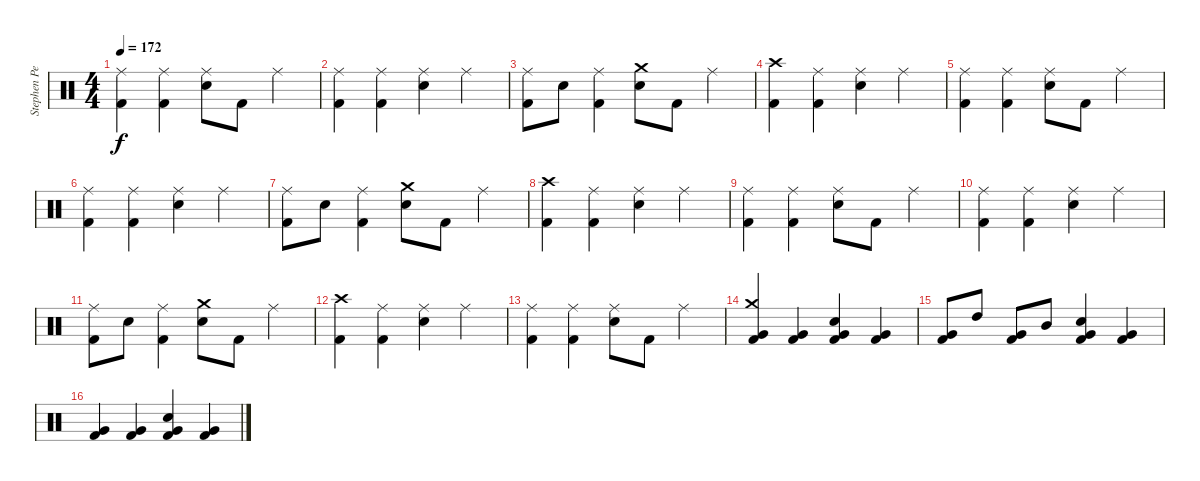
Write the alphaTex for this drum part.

\track ("Stephen Perkins" "Stephen Pe") {instrument percussion}
\staff {score}
\articulation defaults
\ts (4 4)
\tempo 172
\clef neutral
\ks c
("Ride (middle)" "Kick (hit) 2").4{dy f} ("Ride (middle)" "Kick (hit) 2").4 ("Ride (middle)" "Snare (hit) 2").8 "Kick (hit) 2".8 "Ride (middle)".4 |
("Ride (middle)" "Kick (hit) 2").4 ("Ride (middle)" "Kick (hit) 2").4 ("Ride (middle)" "Snare (hit) 2").4 "Ride (middle)".4 |
("Ride (middle)" "Kick (hit) 2").8 "Snare (hit) 2".8 ("Ride (middle)" "Kick (hit) 2").4 ("Crash medium (hit)" "Snare (hit) 2").8 "Kick (hit) 2".8 "Ride (middle)".4 |
("Crash high (hit)" "Kick (hit) 2").4 ("Ride (middle)" "Kick (hit) 2").4 ("Ride (middle)" "Snare (hit) 2").4 "Ride (middle)".4 |
("Ride (middle)" "Kick (hit) 2").4 ("Ride (middle)" "Kick (hit) 2").4 ("Ride (middle)" "Snare (hit) 2").8 "Kick (hit) 2".8 "Ride (middle)".4 |
("Ride (middle)" "Kick (hit) 2").4 ("Ride (middle)" "Kick (hit) 2").4 ("Ride (middle)" "Snare (hit) 2").4 "Ride (middle)".4 |
("Ride (middle)" "Kick (hit) 2").8 "Snare (hit) 2".8 ("Ride (middle)" "Kick (hit) 2").4 ("Crash medium (hit)" "Snare (hit) 2").8 "Kick (hit) 2".8 "Ride (middle)".4 |
("Crash high (hit)" "Kick (hit) 2").4 ("Ride (middle)" "Kick (hit) 2").4 ("Ride (middle)" "Snare (hit) 2").4 "Ride (middle)".4 |
("Ride (middle)" "Kick (hit) 2").4 ("Ride (middle)" "Kick (hit) 2").4 ("Ride (middle)" "Snare (hit) 2").8 "Kick (hit) 2".8 "Ride (middle)".4 |
("Ride (middle)" "Kick (hit) 2").4 ("Ride (middle)" "Kick (hit) 2").4 ("Ride (middle)" "Snare (hit) 2").4 "Ride (middle)".4 |
("Ride (middle)" "Kick (hit) 2").8 "Snare (hit) 2".8 ("Ride (middle)" "Kick (hit) 2").4 ("Crash medium (hit)" "Snare (hit) 2").8 "Kick (hit) 2".8 "Ride (middle)".4 |
("Crash high (hit)" "Kick (hit) 2").4 ("Ride (middle)" "Kick (hit) 2").4 ("Ride (middle)" "Snare (hit) 2").4 "Ride (middle)".4 |
("Ride (middle)" "Kick (hit) 2").4 ("Ride (middle)" "Kick (hit) 2").4 ("Ride (middle)" "Snare (hit) 2").8 "Kick (hit) 2".8 "Ride (middle)".4 |
("Crash medium (hit)" "Very Low Tom (hit)" "Kick (hit) 2").4 ("Very Low Tom (hit)" "Kick (hit) 2").4 ("Snare (hit) 2" "Very Low Tom (hit)" "Kick (hit) 2").4 ("Very Low Tom (hit)" "Kick (hit) 2").4 |
("Very Low Tom (hit)" "Kick (hit) 2").8 "High Tom (hit)".8 ("Very Low Tom (hit)" "Kick (hit) 2").8 "Mid Tom (hit)".8 ("Snare (hit) 2" "Very Low Tom (hit)" "Kick (hit) 2").4 ("Very Low Tom (hit)" "Kick (hit) 2").4 |
("Very Low Tom (hit)" "Kick (hit) 2").4 ("Very Low Tom (hit)" "Kick (hit) 2").4 ("Snare (hit) 2" "Very Low Tom (hit)" "Kick (hit) 2").4 ("Very Low Tom (hit)" "Kick (hit) 2").4
